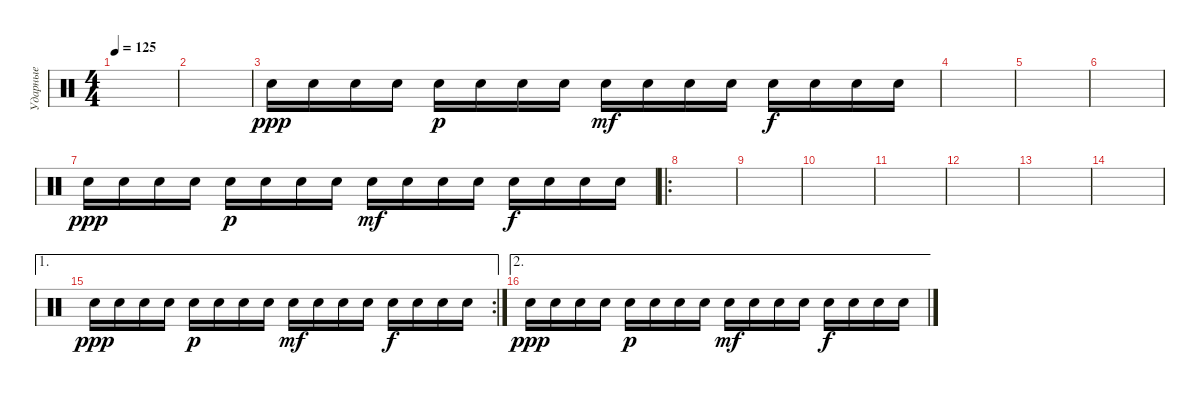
\track ("Ударные" "Ударные") {instrument percussion}
\staff {score}
\articulation defaults
\ts (4 4)
\tempo 125
\clef neutral
\ks c
|
|
"Snare (hit) 2".16{dy ppp} "Snare (hit) 2".16 "Snare (hit) 2".16 "Snare (hit) 2".16 "Snare (hit) 2".16{dy p} "Snare (hit) 2".16 "Snare (hit) 2".16 "Snare (hit) 2".16 "Snare (hit) 2".16{dy mf} "Snare (hit) 2".16 "Snare (hit) 2".16 "Snare (hit) 2".16 "Snare (hit) 2".16{dy f} "Snare (hit) 2".16 "Snare (hit) 2".16 "Snare (hit) 2".16 |
|
|
|
"Snare (hit) 2".16{dy ppp} "Snare (hit) 2".16 "Snare (hit) 2".16 "Snare (hit) 2".16 "Snare (hit) 2".16{dy p} "Snare (hit) 2".16 "Snare (hit) 2".16 "Snare (hit) 2".16 "Snare (hit) 2".16{dy mf} "Snare (hit) 2".16 "Snare (hit) 2".16 "Snare (hit) 2".16 "Snare (hit) 2".16{dy f} "Snare (hit) 2".16 "Snare (hit) 2".16 "Snare (hit) 2".16 |
\ro
|
|
|
|
|
|
|
\ae 1
\rc 2 "Snare (hit) 2".16{dy ppp} "Snare (hit) 2".16 "Snare (hit) 2".16 "Snare (hit) 2".16 "Snare (hit) 2".16{dy p} "Snare (hit) 2".16 "Snare (hit) 2".16 "Snare (hit) 2".16 "Snare (hit) 2".16{dy mf} "Snare (hit) 2".16 "Snare (hit) 2".16 "Snare (hit) 2".16 "Snare (hit) 2".16{dy f} "Snare (hit) 2".16 "Snare (hit) 2".16 "Snare (hit) 2".16
|
\ae 2 "Snare (hit) 2".16{dy ppp} "Snare (hit) 2".16 "Snare (hit) 2".16 "Snare (hit) 2".16 "Snare (hit) 2".16{dy p} "Snare (hit) 2".16 "Snare (hit) 2".16 "Snare (hit) 2".16 "Snare (hit) 2".16{dy mf} "Snare (hit) 2".16 "Snare (hit) 2".16 "Snare (hit) 2".16 "Snare (hit) 2".16{dy f} "Snare (hit) 2".16 "Snare (hit) 2".16 "Snare (hit) 2".16
